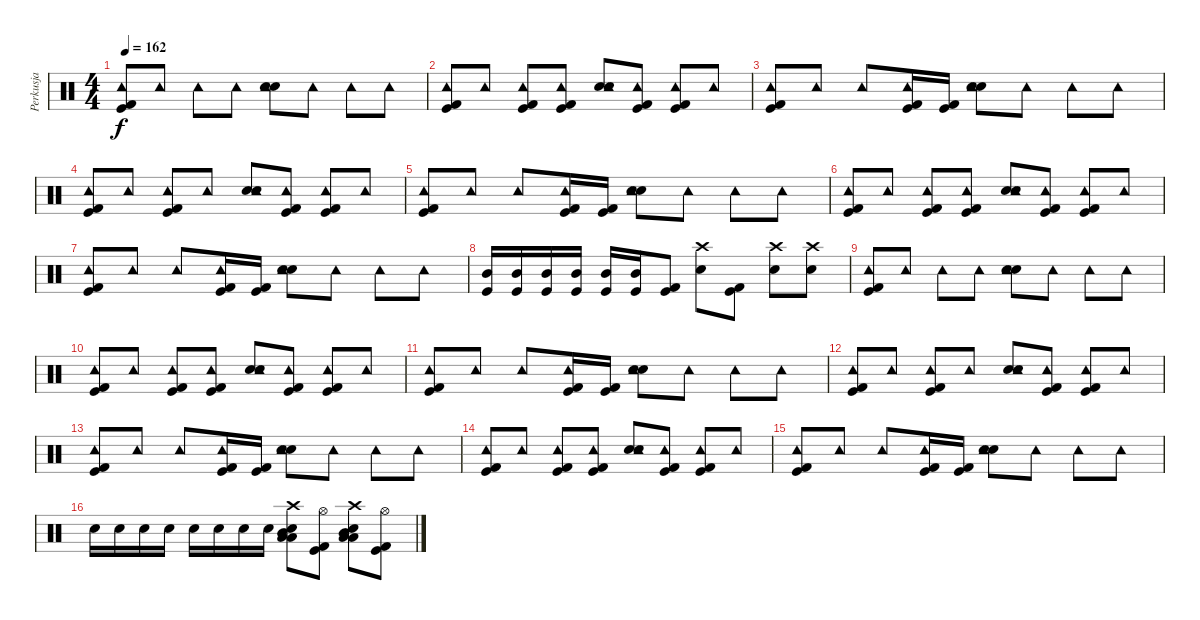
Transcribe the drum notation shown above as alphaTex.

\track ("Perkusja" "Perkusja") {instrument percussion}
\staff {score}
\articulation defaults
\ts (4 4)
\tempo 162
\clef neutral
\ks c
("Tambourine (hit)" "Kick (hit) 2" "Kick (hit)").8{dy f} "Tambourine (hit)".8 "Tambourine (hit)".8 "Tambourine (hit)".8 ("Snare (hit) 2" "Snare (hit) 2" "Tambourine (hit)").8 "Tambourine (hit)".8 "Tambourine (hit)".8 "Tambourine (hit)".8 |
("Tambourine (hit)" "Kick (hit) 2" "Kick (hit)").8 "Tambourine (hit)".8 ("Tambourine (hit)" "Kick (hit) 2" "Kick (hit)").8 ("Tambourine (hit)" "Kick (hit) 2" "Kick (hit)").8 ("Snare (hit) 2" "Snare (hit) 2" "Tambourine (hit)").8 ("Tambourine (hit)" "Kick (hit) 2" "Kick (hit)").8 ("Tambourine (hit)" "Kick (hit) 2" "Kick (hit)").8 "Tambourine (hit)".8 |
("Tambourine (hit)" "Kick (hit) 2" "Kick (hit)").8 "Tambourine (hit)".8 "Tambourine (hit)".8 ("Tambourine (hit)" "Kick (hit) 2" "Kick (hit)").16 ("Kick (hit) 2" "Kick (hit)").16 ("Snare (hit) 2" "Snare (hit) 2" "Tambourine (hit)").8 "Tambourine (hit)".8 "Tambourine (hit)".8 "Tambourine (hit)".8 |
("Tambourine (hit)" "Kick (hit) 2" "Kick (hit)").8 "Tambourine (hit)".8 ("Tambourine (hit)" "Kick (hit) 2" "Kick (hit)").8 "Tambourine (hit)".8 ("Snare (hit) 2" "Snare (hit) 2" "Tambourine (hit)").8 ("Tambourine (hit)" "Kick (hit) 2" "Kick (hit)").8 ("Tambourine (hit)" "Kick (hit) 2" "Kick (hit)").8 "Tambourine (hit)".8 |
("Tambourine (hit)" "Kick (hit) 2" "Kick (hit)").8 "Tambourine (hit)".8 "Tambourine (hit)".8 ("Tambourine (hit)" "Kick (hit) 2" "Kick (hit)").16 ("Kick (hit) 2" "Kick (hit)").16 ("Snare (hit) 2" "Snare (hit) 2" "Tambourine (hit)").8 "Tambourine (hit)".8 "Tambourine (hit)".8 "Tambourine (hit)".8 |
("Tambourine (hit)" "Kick (hit) 2" "Kick (hit)").8 "Tambourine (hit)".8 ("Tambourine (hit)" "Kick (hit) 2" "Kick (hit)").8 ("Tambourine (hit)" "Kick (hit) 2" "Kick (hit)").8 ("Snare (hit) 2" "Snare (hit) 2" "Tambourine (hit)").8 ("Tambourine (hit)" "Kick (hit) 2" "Kick (hit)").8 ("Tambourine (hit)" "Kick (hit) 2" "Kick (hit)").8 "Tambourine (hit)".8 |
("Tambourine (hit)" "Kick (hit) 2" "Kick (hit)").8 "Tambourine (hit)".8 "Tambourine (hit)".8 ("Tambourine (hit)" "Kick (hit) 2" "Kick (hit)").16 ("Kick (hit) 2" "Kick (hit)").16 ("Snare (hit) 2" "Snare (hit) 2" "Tambourine (hit)").8 "Tambourine (hit)".8 "Tambourine (hit)".8 "Tambourine (hit)".8 |
("Mid Tom (hit)" "Kick (hit)").16 ("Mid Tom (hit)" "Kick (hit)").16 ("Mid Tom (hit)" "Kick (hit)").16 ("Mid Tom (hit)" "Kick (hit)").16 ("Mid Tom (hit)" "Kick (hit)").16 ("Mid Tom (hit)" "Kick (hit)").16 ("Kick (hit) 2" "Kick (hit)").8 ("Crash high (hit)" "Snare (hit) 2").8 ("Kick (hit) 2" "Kick (hit)").8 ("Crash high (hit)" "Snare (hit) 2").8 ("Crash high (hit)" "Snare (hit) 2").8 |
("Tambourine (hit)" "Kick (hit) 2" "Kick (hit)").8 "Tambourine (hit)".8 "Tambourine (hit)".8 "Tambourine (hit)".8 ("Snare (hit) 2" "Snare (hit) 2" "Tambourine (hit)").8 "Tambourine (hit)".8 "Tambourine (hit)".8 "Tambourine (hit)".8 |
("Tambourine (hit)" "Kick (hit) 2" "Kick (hit)").8 "Tambourine (hit)".8 ("Tambourine (hit)" "Kick (hit) 2" "Kick (hit)").8 ("Tambourine (hit)" "Kick (hit) 2" "Kick (hit)").8 ("Snare (hit) 2" "Snare (hit) 2" "Tambourine (hit)").8 ("Tambourine (hit)" "Kick (hit) 2" "Kick (hit)").8 ("Tambourine (hit)" "Kick (hit) 2" "Kick (hit)").8 "Tambourine (hit)".8 |
("Tambourine (hit)" "Kick (hit) 2" "Kick (hit)").8 "Tambourine (hit)".8 "Tambourine (hit)".8 ("Tambourine (hit)" "Kick (hit) 2" "Kick (hit)").16 ("Kick (hit) 2" "Kick (hit)").16 ("Snare (hit) 2" "Snare (hit) 2" "Tambourine (hit)").8 "Tambourine (hit)".8 "Tambourine (hit)".8 "Tambourine (hit)".8 |
("Tambourine (hit)" "Kick (hit) 2" "Kick (hit)").8 "Tambourine (hit)".8 ("Tambourine (hit)" "Kick (hit) 2" "Kick (hit)").8 "Tambourine (hit)".8 ("Snare (hit) 2" "Snare (hit) 2" "Tambourine (hit)").8 ("Tambourine (hit)" "Kick (hit) 2" "Kick (hit)").8 ("Tambourine (hit)" "Kick (hit) 2" "Kick (hit)").8 "Tambourine (hit)".8 |
("Tambourine (hit)" "Kick (hit) 2" "Kick (hit)").8 "Tambourine (hit)".8 "Tambourine (hit)".8 ("Tambourine (hit)" "Kick (hit) 2" "Kick (hit)").16 ("Kick (hit) 2" "Kick (hit)").16 ("Snare (hit) 2" "Snare (hit) 2" "Tambourine (hit)").8 "Tambourine (hit)".8 "Tambourine (hit)".8 "Tambourine (hit)".8 |
("Tambourine (hit)" "Kick (hit) 2" "Kick (hit)").8 "Tambourine (hit)".8 ("Tambourine (hit)" "Kick (hit) 2" "Kick (hit)").8 ("Tambourine (hit)" "Kick (hit) 2" "Kick (hit)").8 ("Snare (hit) 2" "Snare (hit) 2" "Tambourine (hit)").8 ("Tambourine (hit)" "Kick (hit) 2" "Kick (hit)").8 ("Tambourine (hit)" "Kick (hit) 2" "Kick (hit)").8 "Tambourine (hit)".8 |
("Tambourine (hit)" "Kick (hit) 2" "Kick (hit)").8 "Tambourine (hit)".8 "Tambourine (hit)".8 ("Tambourine (hit)" "Kick (hit) 2" "Kick (hit)").16 ("Kick (hit) 2" "Kick (hit)").16 ("Snare (hit) 2" "Snare (hit) 2" "Tambourine (hit)").8 "Tambourine (hit)".8 "Tambourine (hit)".8 "Tambourine (hit)".8 |
"Snare (hit) 2".16 "Snare (hit) 2".16 "Snare (hit) 2".16 "Snare (hit) 2".16 "Snare (hit) 2".16 "Snare (hit) 2".16 "Snare (hit) 2".16 "Snare (hit) 2".16 ("Crash high (hit)" "Snare (hit) 2" "Low Tom (hit)" "Low Tom (hit)" "Mid Tom (hit)").8 ("Hi-Hat (open)" "Kick (hit) 2" "Kick (hit)").8 ("Crash high (hit)" "Snare (hit) 2" "Low Tom (hit)" "Low Tom (hit)" "Mid Tom (hit)").8 ("Hi-Hat (open)" "Kick (hit) 2" "Kick (hit)").8
